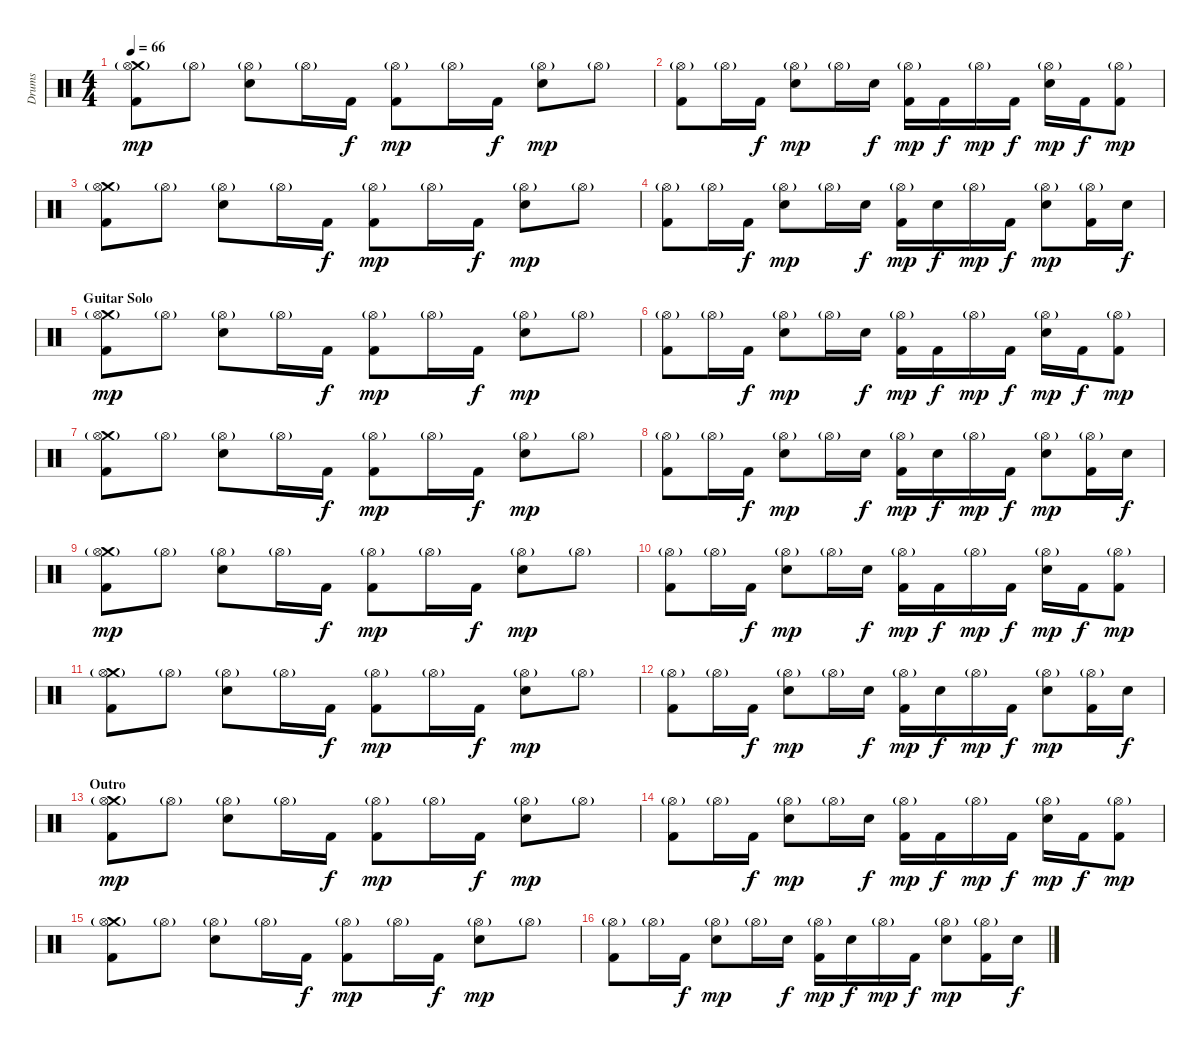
\track ("Drums" "Drums") {instrument percussion}
\staff {score}
\articulation defaults
\ts (4 4)
\tempo 66
\clef neutral
\ks c
("Crash medium (hit)" "Hi-Hat (open)"{g} "Kick (hit) 2").8{dy mp} "Hi-Hat (open)"{g}.8 ("Electric Snare (hit)" "Hi-Hat (open)"{g}).8 "Hi-Hat (open)"{g}.16 "Kick (hit) 2".16{dy f} ("Hi-Hat (open)"{g} "Kick (hit) 2").8{dy mp} "Hi-Hat (open)"{g}.16 "Kick (hit) 2".16{dy f} ("Electric Snare (hit)" "Hi-Hat (open)"{g}).8{dy mp} "Hi-Hat (open)"{g}.8 |
("Hi-Hat (open)"{g} "Kick (hit) 2").8 "Hi-Hat (open)"{g}.16 "Kick (hit) 2".16{dy f} ("Electric Snare (hit)" "Hi-Hat (open)"{g}).8{dy mp} "Hi-Hat (open)"{g}.16 "Electric Snare (hit)".16{dy f} ("Hi-Hat (open)"{g} "Kick (hit) 2").16{dy mp} "Kick (hit) 2".16{dy f} "Hi-Hat (open)"{g}.16{dy mp} "Kick (hit) 2".16{dy f} ("Electric Snare (hit)" "Hi-Hat (open)"{g}).16{dy mp} "Kick (hit) 2".16{dy f} ("Hi-Hat (open)"{g} "Kick (hit) 2").8{dy mp} |
("Crash medium (hit)" "Hi-Hat (open)"{g} "Kick (hit) 2").8 "Hi-Hat (open)"{g}.8 ("Electric Snare (hit)" "Hi-Hat (open)"{g}).8 "Hi-Hat (open)"{g}.16 "Kick (hit) 2".16{dy f} ("Hi-Hat (open)"{g} "Kick (hit) 2").8{dy mp} "Hi-Hat (open)"{g}.16 "Kick (hit) 2".16{dy f} ("Electric Snare (hit)" "Hi-Hat (open)"{g}).8{dy mp} "Hi-Hat (open)"{g}.8 |
("Hi-Hat (open)"{g} "Kick (hit) 2").8 "Hi-Hat (open)"{g}.16 "Kick (hit) 2".16{dy f} ("Electric Snare (hit)" "Hi-Hat (open)"{g}).8{dy mp} "Hi-Hat (open)"{g}.16 "Electric Snare (hit)".16{dy f} ("Hi-Hat (open)"{g} "Kick (hit) 2").16{dy mp} "Electric Snare (hit)".16{dy f} "Hi-Hat (open)"{g}.16{dy mp} "Kick (hit) 2".16{dy f} ("Electric Snare (hit)" "Hi-Hat (open)"{g}).8{dy mp} ("Hi-Hat (open)"{g} "Kick (hit) 2").16 "Electric Snare (hit)".16{dy f} |
\section ("" "Guitar Solo")
("Crash medium (hit)" "Hi-Hat (open)"{g} "Kick (hit) 2").8{dy mp} "Hi-Hat (open)"{g}.8 ("Electric Snare (hit)" "Hi-Hat (open)"{g}).8 "Hi-Hat (open)"{g}.16 "Kick (hit) 2".16{dy f} ("Hi-Hat (open)"{g} "Kick (hit) 2").8{dy mp} "Hi-Hat (open)"{g}.16 "Kick (hit) 2".16{dy f} ("Electric Snare (hit)" "Hi-Hat (open)"{g}).8{dy mp} "Hi-Hat (open)"{g}.8 |
("Hi-Hat (open)"{g} "Kick (hit) 2").8 "Hi-Hat (open)"{g}.16 "Kick (hit) 2".16{dy f} ("Electric Snare (hit)" "Hi-Hat (open)"{g}).8{dy mp} "Hi-Hat (open)"{g}.16 "Electric Snare (hit)".16{dy f} ("Hi-Hat (open)"{g} "Kick (hit) 2").16{dy mp} "Kick (hit) 2".16{dy f} "Hi-Hat (open)"{g}.16{dy mp} "Kick (hit) 2".16{dy f} ("Electric Snare (hit)" "Hi-Hat (open)"{g}).16{dy mp} "Kick (hit) 2".16{dy f} ("Hi-Hat (open)"{g} "Kick (hit) 2").8{dy mp} |
("Crash medium (hit)" "Hi-Hat (open)"{g} "Kick (hit) 2").8 "Hi-Hat (open)"{g}.8 ("Electric Snare (hit)" "Hi-Hat (open)"{g}).8 "Hi-Hat (open)"{g}.16 "Kick (hit) 2".16{dy f} ("Hi-Hat (open)"{g} "Kick (hit) 2").8{dy mp} "Hi-Hat (open)"{g}.16 "Kick (hit) 2".16{dy f} ("Electric Snare (hit)" "Hi-Hat (open)"{g}).8{dy mp} "Hi-Hat (open)"{g}.8 |
("Hi-Hat (open)"{g} "Kick (hit) 2").8 "Hi-Hat (open)"{g}.16 "Kick (hit) 2".16{dy f} ("Electric Snare (hit)" "Hi-Hat (open)"{g}).8{dy mp} "Hi-Hat (open)"{g}.16 "Electric Snare (hit)".16{dy f} ("Hi-Hat (open)"{g} "Kick (hit) 2").16{dy mp} "Electric Snare (hit)".16{dy f} "Hi-Hat (open)"{g}.16{dy mp} "Kick (hit) 2".16{dy f} ("Electric Snare (hit)" "Hi-Hat (open)"{g}).8{dy mp} ("Hi-Hat (open)"{g} "Kick (hit) 2").16 "Electric Snare (hit)".16{dy f} |
("Crash medium (hit)" "Hi-Hat (open)"{g} "Kick (hit) 2").8{dy mp} "Hi-Hat (open)"{g}.8 ("Electric Snare (hit)" "Hi-Hat (open)"{g}).8 "Hi-Hat (open)"{g}.16 "Kick (hit) 2".16{dy f} ("Hi-Hat (open)"{g} "Kick (hit) 2").8{dy mp} "Hi-Hat (open)"{g}.16 "Kick (hit) 2".16{dy f} ("Electric Snare (hit)" "Hi-Hat (open)"{g}).8{dy mp} "Hi-Hat (open)"{g}.8 |
("Hi-Hat (open)"{g} "Kick (hit) 2").8 "Hi-Hat (open)"{g}.16 "Kick (hit) 2".16{dy f} ("Electric Snare (hit)" "Hi-Hat (open)"{g}).8{dy mp} "Hi-Hat (open)"{g}.16 "Electric Snare (hit)".16{dy f} ("Hi-Hat (open)"{g} "Kick (hit) 2").16{dy mp} "Kick (hit) 2".16{dy f} "Hi-Hat (open)"{g}.16{dy mp} "Kick (hit) 2".16{dy f} ("Electric Snare (hit)" "Hi-Hat (open)"{g}).16{dy mp} "Kick (hit) 2".16{dy f} ("Hi-Hat (open)"{g} "Kick (hit) 2").8{dy mp} |
("Crash medium (hit)" "Hi-Hat (open)"{g} "Kick (hit) 2").8 "Hi-Hat (open)"{g}.8 ("Electric Snare (hit)" "Hi-Hat (open)"{g}).8 "Hi-Hat (open)"{g}.16 "Kick (hit) 2".16{dy f} ("Hi-Hat (open)"{g} "Kick (hit) 2").8{dy mp} "Hi-Hat (open)"{g}.16 "Kick (hit) 2".16{dy f} ("Electric Snare (hit)" "Hi-Hat (open)"{g}).8{dy mp} "Hi-Hat (open)"{g}.8 |
("Hi-Hat (open)"{g} "Kick (hit) 2").8 "Hi-Hat (open)"{g}.16 "Kick (hit) 2".16{dy f} ("Electric Snare (hit)" "Hi-Hat (open)"{g}).8{dy mp} "Hi-Hat (open)"{g}.16 "Electric Snare (hit)".16{dy f} ("Hi-Hat (open)"{g} "Kick (hit) 2").16{dy mp} "Electric Snare (hit)".16{dy f} "Hi-Hat (open)"{g}.16{dy mp} "Kick (hit) 2".16{dy f} ("Electric Snare (hit)" "Hi-Hat (open)"{g}).8{dy mp} ("Hi-Hat (open)"{g} "Kick (hit) 2").16 "Electric Snare (hit)".16{dy f} |
\section ("" "Outro")
("Crash medium (hit)" "Hi-Hat (open)"{g} "Kick (hit) 2").8{dy mp} "Hi-Hat (open)"{g}.8 ("Electric Snare (hit)" "Hi-Hat (open)"{g}).8 "Hi-Hat (open)"{g}.16 "Kick (hit) 2".16{dy f} ("Hi-Hat (open)"{g} "Kick (hit) 2").8{dy mp} "Hi-Hat (open)"{g}.16 "Kick (hit) 2".16{dy f} ("Electric Snare (hit)" "Hi-Hat (open)"{g}).8{dy mp} "Hi-Hat (open)"{g}.8 |
("Hi-Hat (open)"{g} "Kick (hit) 2").8 "Hi-Hat (open)"{g}.16 "Kick (hit) 2".16{dy f} ("Electric Snare (hit)" "Hi-Hat (open)"{g}).8{dy mp} "Hi-Hat (open)"{g}.16 "Electric Snare (hit)".16{dy f} ("Hi-Hat (open)"{g} "Kick (hit) 2").16{dy mp} "Kick (hit) 2".16{dy f} "Hi-Hat (open)"{g}.16{dy mp} "Kick (hit) 2".16{dy f} ("Electric Snare (hit)" "Hi-Hat (open)"{g}).16{dy mp} "Kick (hit) 2".16{dy f} ("Hi-Hat (open)"{g} "Kick (hit) 2").8{dy mp} |
("Crash medium (hit)" "Hi-Hat (open)"{g} "Kick (hit) 2").8 "Hi-Hat (open)"{g}.8 ("Electric Snare (hit)" "Hi-Hat (open)"{g}).8 "Hi-Hat (open)"{g}.16 "Kick (hit) 2".16{dy f} ("Hi-Hat (open)"{g} "Kick (hit) 2").8{dy mp} "Hi-Hat (open)"{g}.16 "Kick (hit) 2".16{dy f} ("Electric Snare (hit)" "Hi-Hat (open)"{g}).8{dy mp} "Hi-Hat (open)"{g}.8 |
("Hi-Hat (open)"{g} "Kick (hit) 2").8 "Hi-Hat (open)"{g}.16 "Kick (hit) 2".16{dy f} ("Electric Snare (hit)" "Hi-Hat (open)"{g}).8{dy mp} "Hi-Hat (open)"{g}.16 "Electric Snare (hit)".16{dy f} ("Hi-Hat (open)"{g} "Kick (hit) 2").16{dy mp} "Electric Snare (hit)".16{dy f} "Hi-Hat (open)"{g}.16{dy mp} "Kick (hit) 2".16{dy f} ("Electric Snare (hit)" "Hi-Hat (open)"{g}).8{dy mp} ("Hi-Hat (open)"{g} "Kick (hit) 2").16 "Electric Snare (hit)".16{dy f}
